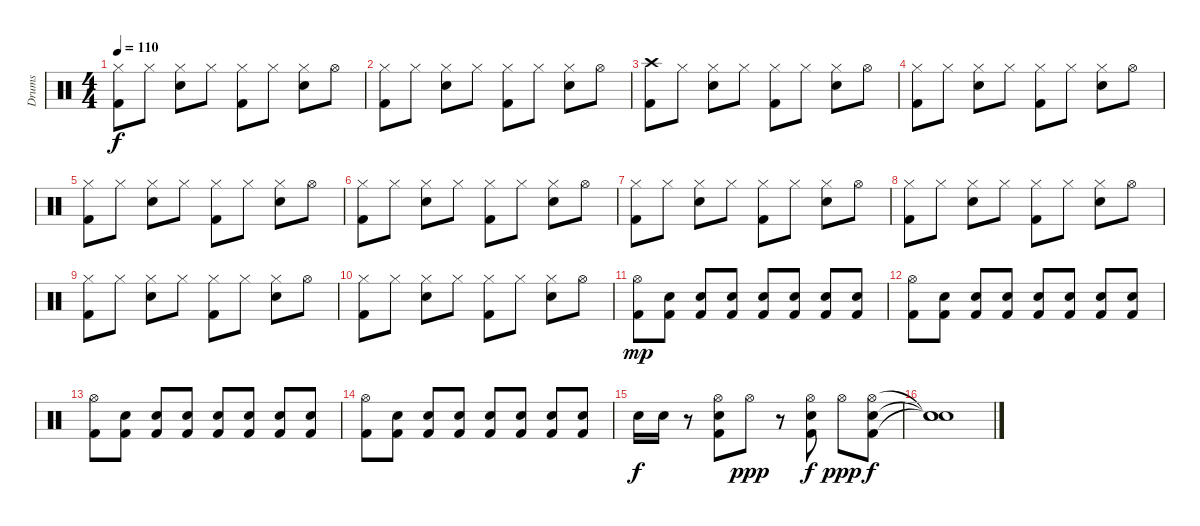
\track ("Drums" "Drums") {instrument percussion}
\staff {score}
\articulation defaults
\ts (4 4)
\tempo 110
\clef neutral
\ks c
("Hi-Hat (closed)" "Kick (hit) 2").8{dy f} "Hi-Hat (closed)".8 ("Hi-Hat (closed)" "Snare (hit) 2").8 "Hi-Hat (closed)".8 ("Hi-Hat (closed)" "Kick (hit) 2").8 "Hi-Hat (closed)".8 ("Hi-Hat (closed)" "Snare (hit) 2").8 "Hi-Hat (open)".8 |
("Hi-Hat (closed)" "Kick (hit) 2").8 "Hi-Hat (closed)".8 ("Hi-Hat (closed)" "Snare (hit) 2").8 "Hi-Hat (closed)".8 ("Hi-Hat (closed)" "Kick (hit) 2").8 "Hi-Hat (closed)".8 ("Hi-Hat (closed)" "Snare (hit) 2").8 "Hi-Hat (open)".8 |
("Crash high (hit)" "Kick (hit) 2").8 "Hi-Hat (closed)".8 ("Hi-Hat (closed)" "Snare (hit) 2").8 "Hi-Hat (closed)".8 ("Hi-Hat (closed)" "Kick (hit) 2").8 "Hi-Hat (closed)".8 ("Hi-Hat (closed)" "Snare (hit) 2").8 "Hi-Hat (open)".8 |
("Hi-Hat (closed)" "Kick (hit) 2").8 "Hi-Hat (closed)".8 ("Hi-Hat (closed)" "Snare (hit) 2").8 "Hi-Hat (closed)".8 ("Hi-Hat (closed)" "Kick (hit) 2").8 "Hi-Hat (closed)".8 ("Hi-Hat (closed)" "Snare (hit) 2").8 "Hi-Hat (open)".8 |
("Hi-Hat (closed)" "Kick (hit) 2").8 "Hi-Hat (closed)".8 ("Hi-Hat (closed)" "Snare (hit) 2").8 "Hi-Hat (closed)".8 ("Hi-Hat (closed)" "Kick (hit) 2").8 "Hi-Hat (closed)".8 ("Hi-Hat (closed)" "Snare (hit) 2").8 "Hi-Hat (open)".8 |
("Hi-Hat (closed)" "Kick (hit) 2").8 "Hi-Hat (closed)".8 ("Hi-Hat (closed)" "Snare (hit) 2").8 "Hi-Hat (closed)".8 ("Hi-Hat (closed)" "Kick (hit) 2").8 "Hi-Hat (closed)".8 ("Hi-Hat (closed)" "Snare (hit) 2").8 "Hi-Hat (open)".8 |
("Hi-Hat (closed)" "Kick (hit) 2").8 "Hi-Hat (closed)".8 ("Hi-Hat (closed)" "Snare (hit) 2").8 "Hi-Hat (closed)".8 ("Hi-Hat (closed)" "Kick (hit) 2").8 "Hi-Hat (closed)".8 ("Hi-Hat (closed)" "Snare (hit) 2").8 "Hi-Hat (open)".8 |
("Hi-Hat (closed)" "Kick (hit) 2").8 "Hi-Hat (closed)".8 ("Hi-Hat (closed)" "Snare (hit) 2").8 "Hi-Hat (closed)".8 ("Hi-Hat (closed)" "Kick (hit) 2").8 "Hi-Hat (closed)".8 ("Hi-Hat (closed)" "Snare (hit) 2").8 "Hi-Hat (open)".8 |
("Hi-Hat (closed)" "Kick (hit) 2").8 "Hi-Hat (closed)".8 ("Hi-Hat (closed)" "Snare (hit) 2").8 "Hi-Hat (closed)".8 ("Hi-Hat (closed)" "Kick (hit) 2").8 "Hi-Hat (closed)".8 ("Hi-Hat (closed)" "Snare (hit) 2").8 "Hi-Hat (open)".8 |
("Hi-Hat (closed)" "Kick (hit) 2").8 "Hi-Hat (closed)".8 ("Hi-Hat (closed)" "Snare (hit) 2").8 "Hi-Hat (closed)".8 ("Hi-Hat (closed)" "Kick (hit) 2").8 "Hi-Hat (closed)".8 ("Hi-Hat (closed)" "Snare (hit) 2").8 "Hi-Hat (open)".8 |
("Kick (hit) 2" "Hi-Hat (open)").8{dy mp} ("Kick (hit) 2" "Snare (hit) 2").8 ("Kick (hit) 2" "Snare (hit) 2").8 ("Kick (hit) 2" "Snare (hit) 2").8 ("Kick (hit) 2" "Snare (hit) 2").8 ("Kick (hit) 2" "Snare (hit) 2").8 ("Kick (hit) 2" "Snare (hit) 2").8 ("Kick (hit) 2" "Snare (hit) 2").8 |
("Hi-Hat (open)" "Kick (hit) 2").8 ("Kick (hit) 2" "Snare (hit) 2").8 ("Kick (hit) 2" "Snare (hit) 2").8 ("Kick (hit) 2" "Snare (hit) 2").8 ("Kick (hit) 2" "Snare (hit) 2").8 ("Kick (hit) 2" "Snare (hit) 2").8 ("Kick (hit) 2" "Snare (hit) 2").8 ("Kick (hit) 2" "Snare (hit) 2").8 |
("Hi-Hat (open)" "Kick (hit) 2").8 ("Kick (hit) 2" "Snare (hit) 2").8 ("Kick (hit) 2" "Snare (hit) 2").8 ("Kick (hit) 2" "Snare (hit) 2").8 ("Kick (hit) 2" "Snare (hit) 2").8 ("Kick (hit) 2" "Snare (hit) 2").8 ("Kick (hit) 2" "Snare (hit) 2").8 ("Kick (hit) 2" "Snare (hit) 2").8 |
("Hi-Hat (open)" "Kick (hit) 2").8 ("Kick (hit) 2" "Snare (hit) 2").8 ("Kick (hit) 2" "Snare (hit) 2").8 ("Kick (hit) 2" "Snare (hit) 2").8 ("Kick (hit) 2" "Snare (hit) 2").8 ("Kick (hit) 2" "Snare (hit) 2").8 ("Kick (hit) 2" "Snare (hit) 2").8 ("Kick (hit) 2" "Snare (hit) 2").8 |
"Snare (hit) 2".16{dy f} "Snare (hit) 2".16 r.8 ("Hi-Hat (open)" "Kick (hit) 2" "Snare (hit) 2").8 "Hi-Hat (open)".8{dy ppp} r.8 ("Hi-Hat (open)" "Kick (hit) 2" "Snare (hit) 2").8{dy f} "Hi-Hat (open)".8{dy ppp} ("Hi-Hat (open)" "Kick (hit) 2" "Snare (hit) 2").8{dy f} |
("Snare (hit)"{t} "Snare (hit)"{t} "Snare (hit)"{t}).1
